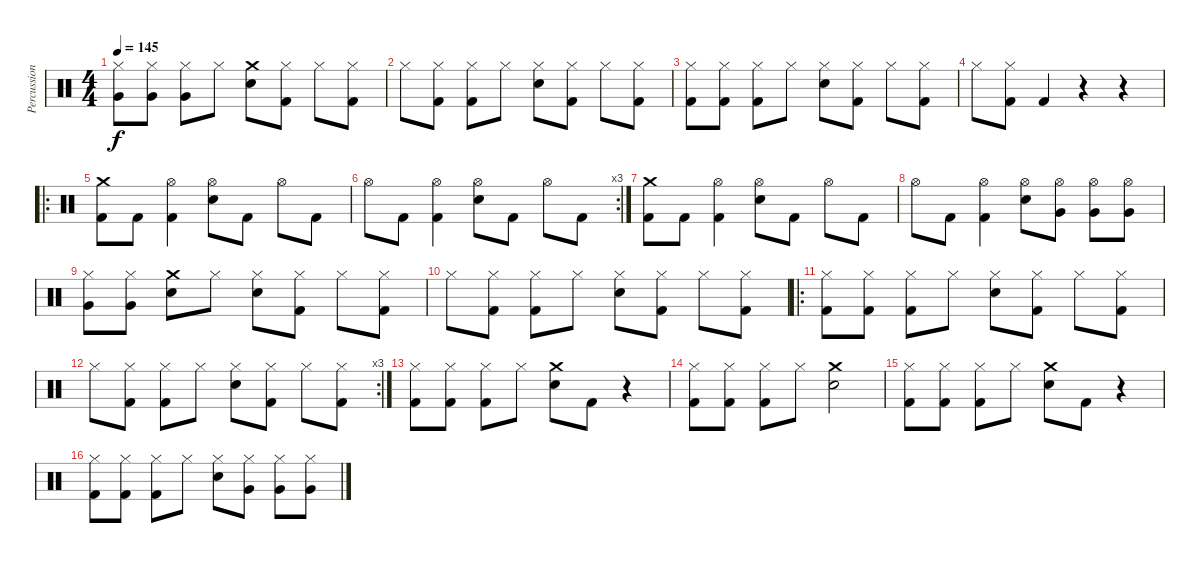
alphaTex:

\track ("Percussion" "Percussion") {instrument percussion}
\staff {score}
\articulation defaults
\ts (4 4)
\tempo 145
\clef neutral
\ks c
("Hi-Hat (closed)" "Very Low Tom (hit)").8{dy f} ("Hi-Hat (closed)" "Very Low Tom (hit)").8 ("Hi-Hat (closed)" "Very Low Tom (hit)").8 "Hi-Hat (closed)".8 ("Crash medium (hit)" "Electric Snare (hit)").8 ("Hi-Hat (closed)" "Kick (hit) 2").8 "Hi-Hat (closed)".8 ("Hi-Hat (closed)" "Kick (hit) 2").8 |
"Hi-Hat (closed)".8 ("Hi-Hat (closed)" "Kick (hit) 2").8 ("Hi-Hat (closed)" "Kick (hit) 2").8 "Hi-Hat (closed)".8 ("Hi-Hat (closed)" "Electric Snare (hit)").8 ("Hi-Hat (closed)" "Kick (hit) 2").8 "Hi-Hat (closed)".8 ("Hi-Hat (closed)" "Kick (hit) 2").8 |
("Hi-Hat (closed)" "Kick (hit) 2").8 ("Hi-Hat (closed)" "Kick (hit) 2").8 ("Hi-Hat (closed)" "Kick (hit) 2").8 "Hi-Hat (closed)".8 ("Hi-Hat (closed)" "Electric Snare (hit)").8 ("Hi-Hat (closed)" "Kick (hit) 2").8 "Hi-Hat (closed)".8 ("Hi-Hat (closed)" "Kick (hit) 2").8 |
"Hi-Hat (closed)".8 ("Hi-Hat (closed)" "Kick (hit) 2").8 "Kick (hit) 2".4 r.4 r.4 |
\ro
("Crash medium (hit)" "Kick (hit) 2").8 "Kick (hit) 2".8 ("Hi-Hat (open)" "Kick (hit) 2").4 ("Hi-Hat (open)" "Electric Snare (hit)").8 "Kick (hit) 2".8 "Hi-Hat (open)".8 "Kick (hit) 2".8 |
\rc 3 "Hi-Hat (open)".8 "Kick (hit) 2".8
("Hi-Hat (open)" "Kick (hit) 2").4 ("Hi-Hat (open)" "Electric Snare (hit)").8 "Kick (hit) 2".8 "Hi-Hat (open)".8 "Kick (hit) 2".8 |
("Crash medium (hit)" "Kick (hit) 2").8 "Kick (hit) 2".8 ("Hi-Hat (open)" "Kick (hit) 2").4 ("Hi-Hat (open)" "Electric Snare (hit)").8 "Kick (hit) 2".8 "Hi-Hat (open)".8 "Kick (hit) 2".8 |
"Hi-Hat (open)".8 "Kick (hit) 2".8 ("Hi-Hat (open)" "Kick (hit) 2").4 ("Hi-Hat (open)" "Electric Snare (hit)").8 ("Hi-Hat (open)" "Very Low Tom (hit)").8 ("Hi-Hat (open)" "Very Low Tom (hit)").8 ("Hi-Hat (open)" "Very Low Tom (hit)").8 |
("Hi-Hat (closed)" "Very Low Tom (hit)").8 ("Hi-Hat (closed)" "Very Low Tom (hit)").8 ("Crash medium (hit)" "Electric Snare (hit)").8 "Hi-Hat (closed)".8 ("Hi-Hat (closed)" "Electric Snare (hit)").8 ("Hi-Hat (closed)" "Kick (hit) 2").8 "Hi-Hat (closed)".8 ("Hi-Hat (closed)" "Kick (hit) 2").8 |
"Hi-Hat (closed)".8 ("Hi-Hat (closed)" "Kick (hit) 2").8 ("Hi-Hat (closed)" "Kick (hit) 2").8 "Hi-Hat (closed)".8 ("Hi-Hat (closed)" "Electric Snare (hit)").8 ("Hi-Hat (closed)" "Kick (hit) 2").8 "Hi-Hat (closed)".8 ("Hi-Hat (closed)" "Kick (hit) 2").8 |
\ro
("Hi-Hat (closed)" "Kick (hit) 2").8 ("Hi-Hat (closed)" "Kick (hit) 2").8 ("Hi-Hat (closed)" "Kick (hit) 2").8 "Hi-Hat (closed)".8 ("Hi-Hat (closed)" "Electric Snare (hit)").8 ("Hi-Hat (closed)" "Kick (hit) 2").8 "Hi-Hat (closed)".8 ("Hi-Hat (closed)" "Kick (hit) 2").8 |
\rc 3 "Hi-Hat (closed)".8
("Hi-Hat (closed)" "Kick (hit) 2").8 ("Hi-Hat (closed)" "Kick (hit) 2").8 "Hi-Hat (closed)".8 ("Hi-Hat (closed)" "Electric Snare (hit)").8 ("Hi-Hat (closed)" "Kick (hit) 2").8 "Hi-Hat (closed)".8 ("Hi-Hat (closed)" "Kick (hit) 2").8 |
("Hi-Hat (closed)" "Kick (hit) 2").8 ("Hi-Hat (closed)" "Kick (hit) 2").8 ("Hi-Hat (closed)" "Kick (hit) 2").8 "Hi-Hat (closed)".8 ("Crash medium (hit)" "Electric Snare (hit)").8 "Kick (hit) 2".8 r.4 |
("Hi-Hat (closed)" "Kick (hit) 2").8 ("Hi-Hat (closed)" "Kick (hit) 2").8 ("Hi-Hat (closed)" "Kick (hit) 2").8 "Hi-Hat (closed)".8 ("Crash medium (hit)" "Electric Snare (hit)").2 |
("Hi-Hat (closed)" "Kick (hit) 2").8 ("Hi-Hat (closed)" "Kick (hit) 2").8 ("Hi-Hat (closed)" "Kick (hit) 2").8 "Hi-Hat (closed)".8 ("Crash medium (hit)" "Electric Snare (hit)").8 "Kick (hit) 2".8 r.4 |
("Hi-Hat (closed)" "Kick (hit) 2").8 ("Hi-Hat (closed)" "Kick (hit) 2").8 ("Hi-Hat (closed)" "Kick (hit) 2").8 "Hi-Hat (closed)".8 ("Hi-Hat (closed)" "Electric Snare (hit)").8 ("Hi-Hat (closed)" "Very Low Tom (hit)").8 ("Hi-Hat (closed)" "Very Low Tom (hit)").8 ("Hi-Hat (closed)" "Very Low Tom (hit)").8
